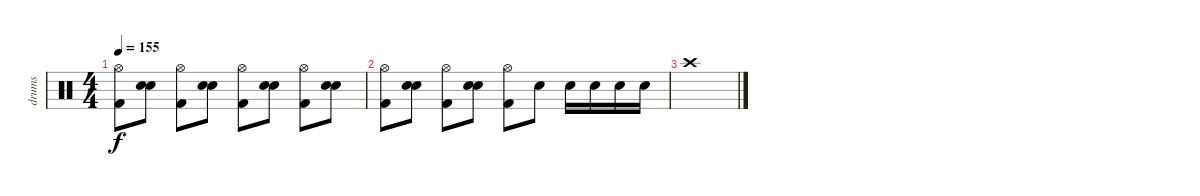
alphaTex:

\track ("drums" "drums") {instrument percussion}
\staff {score}
\articulation defaults
\ts (4 4)
\tempo 155
\clef neutral
\ks c
("Hi-Hat (open)" "Kick (hit) 2").8{dy f} ("Snare (hit) 2" "Snare (hit) 2").8 ("Hi-Hat (open)" "Kick (hit) 2").8 ("Snare (hit) 2" "Snare (hit) 2").8 ("Hi-Hat (open)" "Kick (hit) 2").8 ("Snare (hit) 2" "Snare (hit) 2").8 ("Hi-Hat (open)" "Kick (hit) 2").8 ("Snare (hit) 2" "Snare (hit) 2").8 |
("Hi-Hat (open)" "Kick (hit) 2").8 ("Snare (hit) 2" "Snare (hit) 2").8 ("Hi-Hat (open)" "Kick (hit) 2").8 ("Snare (hit) 2" "Snare (hit) 2").8 ("Hi-Hat (open)" "Kick (hit) 2").8 "Snare (hit) 2".8 "Snare (hit) 2".16 "Snare (hit) 2".16 "Snare (hit) 2".16 "Snare (hit) 2".16 |
"Crash high (hit)".1
